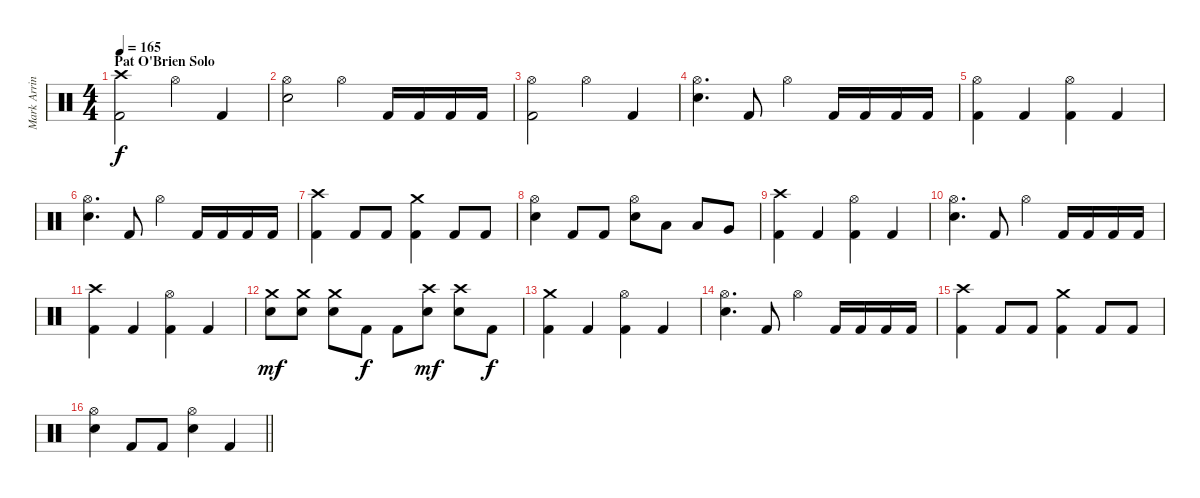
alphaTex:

\track ("Mark Arrington Drums" "Mark Arrin") {instrument percussion}
\staff {score}
\articulation defaults
\ts (4 4)
\section ("" "Pat O'Brien Solo")
\tempo 165
\clef neutral
\ks c
("Crash high (hit)" "Kick (hit) 2").2{dy f} "Hi-Hat (open)".4 "Kick (hit) 2".4 |
("Hi-Hat (open)" "Electric Snare (hit)").2 "Hi-Hat (open)".4 "Kick (hit) 2".16 "Kick (hit) 2".16 "Kick (hit) 2".16 "Kick (hit) 2".16 |
("Hi-Hat (open)" "Kick (hit) 2").2 "Hi-Hat (open)".4 "Kick (hit) 2".4 |
("Hi-Hat (open)" "Electric Snare (hit)").4{d} "Kick (hit) 2".8 "Hi-Hat (open)".4 "Kick (hit) 2".16 "Kick (hit) 2".16 "Kick (hit) 2".16 "Kick (hit) 2".16 |
("Hi-Hat (open)" "Kick (hit) 2").4 "Kick (hit) 2".4 ("Hi-Hat (open)" "Kick (hit) 2").4 "Kick (hit) 2".4 |
("Hi-Hat (open)" "Electric Snare (hit)").4{d} "Kick (hit) 2".8 "Hi-Hat (open)".4 "Kick (hit) 2".16 "Kick (hit) 2".16 "Kick (hit) 2".16 "Kick (hit) 2".16 |
("Crash high (hit)" "Kick (hit) 2").4 "Kick (hit) 2".8 "Kick (hit) 2".8 ("Crash medium (hit)" "Kick (hit) 2").4 "Kick (hit) 2".8 "Kick (hit) 2".8 |
("Hi-Hat (open)" "Electric Snare (hit)").4 "Kick (hit) 2".8 "Kick (hit) 2".8 ("Hi-Hat (open)" "Electric Snare (hit)").8 "Low Tom (hit)".8 "Low Tom (hit)".8 "Very Low Tom (hit)".8 |
("Crash high (hit)" "Kick (hit) 2").4 "Kick (hit) 2".4 ("Hi-Hat (open)" "Kick (hit) 2").4 "Kick (hit) 2".4 |
("Hi-Hat (open)" "Electric Snare (hit)").4{d} "Kick (hit) 2".8 "Hi-Hat (open)".4 "Kick (hit) 2".16 "Kick (hit) 2".16 "Kick (hit) 2".16 "Kick (hit) 2".16 |
("Crash high (hit)" "Kick (hit) 2").4 "Kick (hit) 2".4 ("Hi-Hat (open)" "Kick (hit) 2").4 "Kick (hit) 2".4 |
("Crash medium (hit)" "Electric Snare (hit)").8{dy mf} ("Crash medium (hit)" "Electric Snare (hit)").8 ("Crash medium (hit)" "Electric Snare (hit)").8 "Kick (hit) 2".8{dy f} "Kick (hit) 2".8 ("Crash high (hit)" "Electric Snare (hit)").8{dy mf} ("Crash high (hit)" "Electric Snare (hit)").8 "Kick (hit) 2".8{dy f} |
("Crash medium (hit)" "Kick (hit) 2").4 "Kick (hit) 2".4 ("Hi-Hat (open)" "Kick (hit) 2").4 "Kick (hit) 2".4 |
("Hi-Hat (open)" "Electric Snare (hit)").4{d} "Kick (hit) 2".8 "Hi-Hat (open)".4 "Kick (hit) 2".16 "Kick (hit) 2".16 "Kick (hit) 2".16 "Kick (hit) 2".16 |
("Crash high (hit)" "Kick (hit) 2").4 "Kick (hit) 2".8 "Kick (hit) 2".8 ("Crash medium (hit)" "Kick (hit) 2").4 "Kick (hit) 2".8 "Kick (hit) 2".8 |
\barLineRight lightlight
("Hi-Hat (open)" "Electric Snare (hit)").4 "Kick (hit) 2".8 "Kick (hit) 2".8 ("Hi-Hat (open)" "Electric Snare (hit)").4 "Kick (hit) 2".4
